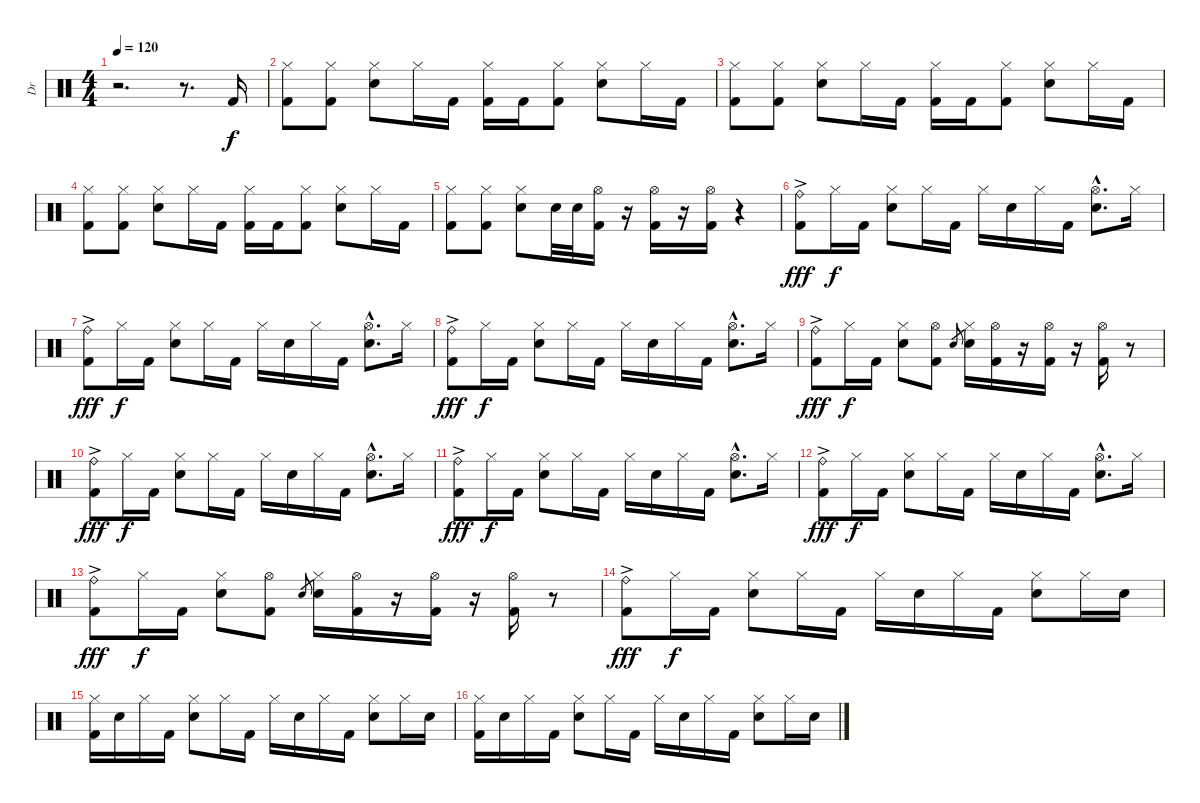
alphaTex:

\track ("Dr" "Dr") {instrument percussion}
\staff {score}
\articulation defaults
\ts (4 4)
\tempo 120
\clef neutral
\ks c
r.2{d dy f volume 16} r.8{d} "Kick (hit) 2".16 |
("Hi-Hat (closed)" "Kick (hit) 2").8 ("Hi-Hat (closed)" "Kick (hit) 2").8 ("Hi-Hat (closed)" "Electric Snare (hit)").8 "Hi-Hat (closed)".16 "Kick (hit) 2".16 ("Hi-Hat (closed)" "Kick (hit) 2").16 "Kick (hit) 2".16 ("Hi-Hat (closed)" "Kick (hit) 2").8 ("Hi-Hat (closed)" "Electric Snare (hit)").8 "Hi-Hat (closed)".16 "Kick (hit) 2".16 |
("Hi-Hat (closed)" "Kick (hit) 2").8 ("Hi-Hat (closed)" "Kick (hit) 2").8 ("Hi-Hat (closed)" "Electric Snare (hit)").8 "Hi-Hat (closed)".16 "Kick (hit) 2".16 ("Hi-Hat (closed)" "Kick (hit) 2").16 "Kick (hit) 2".16 ("Hi-Hat (closed)" "Kick (hit) 2").8 ("Hi-Hat (closed)" "Electric Snare (hit)").8 "Hi-Hat (closed)".16 "Kick (hit) 2".16 |
("Hi-Hat (closed)" "Kick (hit) 2").8 ("Hi-Hat (closed)" "Kick (hit) 2").8 ("Hi-Hat (closed)" "Electric Snare (hit)").8 "Hi-Hat (closed)".16 "Kick (hit) 2".16 ("Hi-Hat (closed)" "Kick (hit) 2").16 "Kick (hit) 2".16 ("Hi-Hat (closed)" "Kick (hit) 2").8 ("Hi-Hat (closed)" "Electric Snare (hit)").8 "Hi-Hat (closed)".16 "Kick (hit) 2".16 |
("Hi-Hat (closed)" "Kick (hit) 2").8 ("Hi-Hat (closed)" "Kick (hit) 2").8 ("Hi-Hat (closed)" "Electric Snare (hit)").8 "Electric Snare (hit)".32 "Snare (hit) 2".32 ("Hi-Hat (open)" "Kick (hit) 2").16 r.16 ("Hi-Hat (open)" "Kick (hit) 2").16 r.16 ("Hi-Hat (open)" "Kick (hit) 2").16 r.4 |
("Ride (bell)"{ac} "Kick (hit) 2"{ac}).8{dy fff} "Hi-Hat (closed)".16{dy f} "Kick (hit) 2".16 ("Hi-Hat (closed)" "Electric Snare (hit)").8 "Hi-Hat (closed)".16 "Kick (hit) 2".16 "Hi-Hat (closed)".16 "Electric Snare (hit)".16 "Hi-Hat (closed)".16 "Kick (hit) 2".16 ("Hi-Hat (open)"{hac} "Electric Snare (hit)"{hac}).8{d} "Hi-Hat (closed)".16 |
("Ride (bell)"{ac} "Kick (hit) 2"{ac}).8{dy fff} "Hi-Hat (closed)".16{dy f} "Kick (hit) 2".16 ("Hi-Hat (closed)" "Electric Snare (hit)").8 "Hi-Hat (closed)".16 "Kick (hit) 2".16 "Hi-Hat (closed)".16 "Electric Snare (hit)".16 "Hi-Hat (closed)".16 "Kick (hit) 2".16 ("Hi-Hat (open)"{hac} "Electric Snare (hit)"{hac}).8{d} "Hi-Hat (closed)".16 |
("Ride (bell)"{ac} "Kick (hit) 2"{ac}).8{dy fff} "Hi-Hat (closed)".16{dy f} "Kick (hit) 2".16 ("Hi-Hat (closed)" "Electric Snare (hit)").8 "Hi-Hat (closed)".16 "Kick (hit) 2".16 "Hi-Hat (closed)".16 "Electric Snare (hit)".16 "Hi-Hat (closed)".16 "Kick (hit) 2".16 ("Hi-Hat (open)"{hac} "Electric Snare (hit)"{hac}).8{d} "Hi-Hat (closed)".16 |
("Ride (bell)"{ac} "Kick (hit) 2"{ac}).8{dy fff} "Hi-Hat (closed)".16{dy f} "Kick (hit) 2".16 ("Hi-Hat (closed)" "Electric Snare (hit)").8 ("Hi-Hat (open)" "Kick (hit) 2").8 "Electric Snare (hit)".8{gr} ("Hi-Hat (closed)" "Electric Snare (hit)").16 ("Hi-Hat (open)" "Kick (hit) 2").16 r.16 ("Hi-Hat (open)" "Kick (hit) 2").16 r.16 ("Hi-Hat (open)" "Kick (hit) 2").16 r.8 |
("Ride (bell)"{ac} "Kick (hit) 2"{ac}).8{dy fff} "Hi-Hat (closed)".16{dy f} "Kick (hit) 2".16 ("Hi-Hat (closed)" "Electric Snare (hit)").8 "Hi-Hat (closed)".16 "Kick (hit) 2".16 "Hi-Hat (closed)".16 "Electric Snare (hit)".16 "Hi-Hat (closed)".16 "Kick (hit) 2".16 ("Hi-Hat (open)"{hac} "Electric Snare (hit)"{hac}).8{d} "Hi-Hat (closed)".16 |
("Ride (bell)"{ac} "Kick (hit) 2"{ac}).8{dy fff} "Hi-Hat (closed)".16{dy f} "Kick (hit) 2".16 ("Hi-Hat (closed)" "Electric Snare (hit)").8 "Hi-Hat (closed)".16 "Kick (hit) 2".16 "Hi-Hat (closed)".16 "Electric Snare (hit)".16 "Hi-Hat (closed)".16 "Kick (hit) 2".16 ("Hi-Hat (open)"{hac} "Electric Snare (hit)"{hac}).8{d} "Hi-Hat (closed)".16 |
("Ride (bell)"{ac} "Kick (hit) 2"{ac}).8{dy fff} "Hi-Hat (closed)".16{dy f} "Kick (hit) 2".16 ("Hi-Hat (closed)" "Electric Snare (hit)").8 "Hi-Hat (closed)".16 "Kick (hit) 2".16 "Hi-Hat (closed)".16 "Electric Snare (hit)".16 "Hi-Hat (closed)".16 "Kick (hit) 2".16 ("Hi-Hat (open)"{hac} "Electric Snare (hit)"{hac}).8{d} "Hi-Hat (closed)".16 |
("Ride (bell)"{ac} "Kick (hit) 2"{ac}).8{dy fff} "Hi-Hat (closed)".16{dy f} "Kick (hit) 2".16 ("Hi-Hat (closed)" "Electric Snare (hit)").8 ("Hi-Hat (open)" "Kick (hit) 2").8 "Electric Snare (hit)".8{gr} ("Hi-Hat (closed)" "Electric Snare (hit)").16 ("Hi-Hat (open)" "Kick (hit) 2").16 r.16 ("Hi-Hat (open)" "Kick (hit) 2").16 r.16 ("Hi-Hat (open)" "Kick (hit) 2").16 r.8 |
("Ride (bell)"{ac} "Kick (hit) 2"{ac}).8{dy fff} "Hi-Hat (closed)".16{dy f} "Kick (hit) 2".16 ("Hi-Hat (closed)" "Electric Snare (hit)").8 "Hi-Hat (closed)".16 "Kick (hit) 2".16 "Hi-Hat (closed)".16 "Electric Snare (hit)".16 "Hi-Hat (closed)".16 "Kick (hit) 2".16 ("Hi-Hat (closed)" "Electric Snare (hit)").8 "Hi-Hat (closed)".16 "Electric Snare (hit)".16 |
("Hi-Hat (closed)" "Kick (hit) 2").16 "Electric Snare (hit)".16 "Hi-Hat (closed)".16 "Kick (hit) 2".16 ("Hi-Hat (closed)" "Electric Snare (hit)").8 "Hi-Hat (closed)".16 "Kick (hit) 2".16 "Hi-Hat (closed)".16 "Electric Snare (hit)".16 "Hi-Hat (closed)".16 "Kick (hit) 2".16 ("Hi-Hat (closed)" "Electric Snare (hit)").8 "Hi-Hat (closed)".16 "Electric Snare (hit)".16 |
("Hi-Hat (closed)" "Kick (hit) 2").16 "Electric Snare (hit)".16 "Hi-Hat (closed)".16 "Kick (hit) 2".16 ("Hi-Hat (closed)" "Electric Snare (hit)").8 "Hi-Hat (closed)".16 "Kick (hit) 2".16 "Hi-Hat (closed)".16 "Electric Snare (hit)".16 "Hi-Hat (closed)".16 "Kick (hit) 2".16 ("Hi-Hat (closed)" "Electric Snare (hit)").8 "Hi-Hat (closed)".16 "Electric Snare (hit)".16
